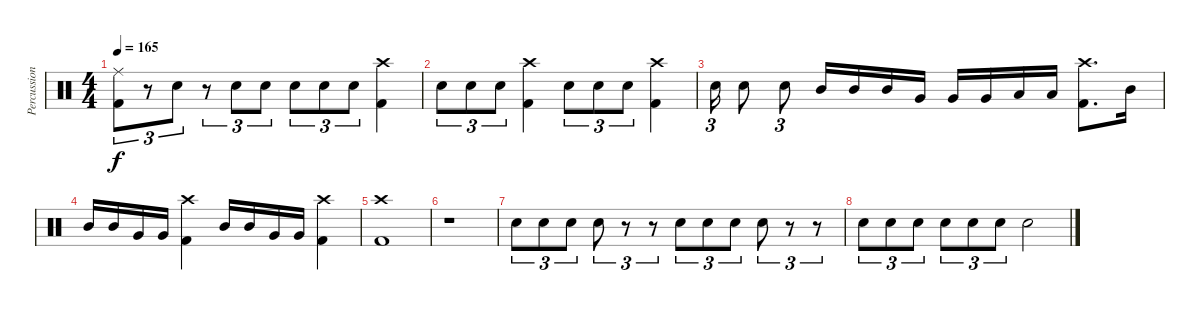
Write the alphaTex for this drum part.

\track ("Percussion" "Percussion") {instrument percussion}
\staff {score}
\articulation defaults
\ts (4 4)
\tempo 165
\clef neutral
\ks c
("Ride (middle)" "Kick (hit) 2").8{tu (3 2) dy f} r.8{tu (3 2)} "Snare (hit) 2".8{tu (3 2)} r.8{tu (3 2)} "Snare (hit) 2".8{tu (3 2)} "Snare (hit) 2".8{tu (3 2)} "Snare (hit) 2".8{tu (3 2)} "Snare (hit) 2".8{tu (3 2)} "Snare (hit) 2".8{tu (3 2)} ("Crash high (hit)" "Kick (hit) 2").4 |
"Snare (hit) 2".8{tu (3 2)} "Snare (hit) 2".8{tu (3 2)} "Snare (hit) 2".8{tu (3 2)} ("Crash high (hit)" "Kick (hit) 2").4 "Snare (hit) 2".8{tu (3 2)} "Snare (hit) 2".8{tu (3 2)} "Snare (hit) 2".8{tu (3 2)} ("Crash high (hit)" "Kick (hit) 2").4 |
"Snare (hit) 2".16{tu (3 2)} "Snare (hit) 2".8 "Snare (hit) 2".8{tu (3 2)} "Mid Tom (hit)".16 "Mid Tom (hit)".16 "Mid Tom (hit)".16 "Very Low Tom (hit)".16 "Very Low Tom (hit)".16 "Very Low Tom (hit)".16 "Low Floor Tom (hit)".16 "Low Floor Tom (hit)".16 ("Crash high (hit)" "Kick (hit) 2").8{d} "Mid Tom (hit)".16 |
"Mid Tom (hit)".16 "Mid Tom (hit)".16 "Very Low Tom (hit)".16 "Very Low Tom (hit)".16 ("Crash high (hit)" "Kick (hit) 2").4 "Mid Tom (hit)".16 "Mid Tom (hit)".16 "Very Low Tom (hit)".16 "Very Low Tom (hit)".16 ("Crash high (hit)" "Kick (hit) 2").4 |
("Crash high (hit)" "Kick (hit) 2").1 |
r.1 |
"Snare (hit) 2".8{tu (3 2)} "Snare (hit) 2".8{tu (3 2)} "Snare (hit) 2".8{tu (3 2)} "Snare (hit) 2".8{tu (3 2)} r.8{tu (3 2)} r.8{tu (3 2)} "Snare (hit) 2".8{tu (3 2)} "Snare (hit) 2".8{tu (3 2)} "Snare (hit) 2".8{tu (3 2)} "Snare (hit) 2".8{tu (3 2)} r.8{tu (3 2)} r.8{tu (3 2)} |
"Snare (hit) 2".8{tu (3 2)} "Snare (hit) 2".8{tu (3 2)} "Snare (hit) 2".8{tu (3 2)} "Snare (hit) 2".8{tu (3 2)} "Snare (hit) 2".8{tu (3 2)} "Snare (hit) 2".8{tu (3 2)} "Snare (hit) 2".2
